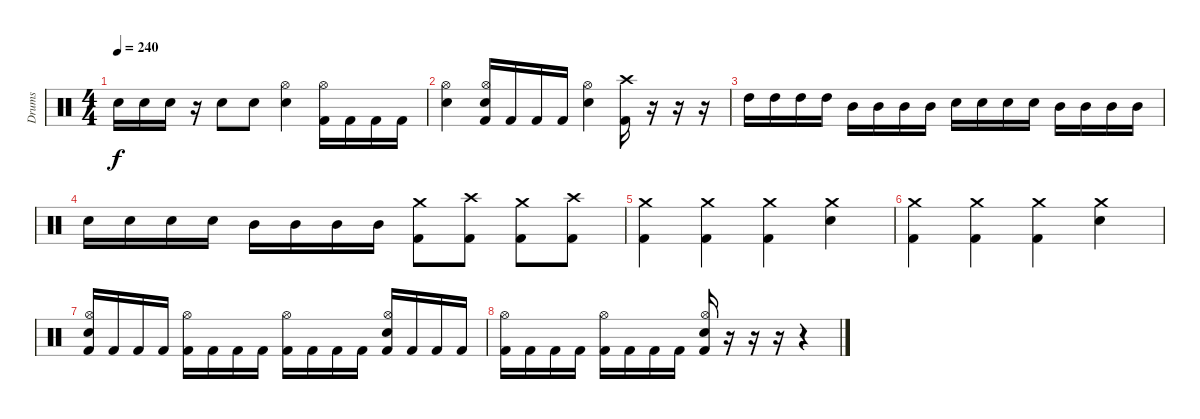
\track ("Drums" "Drums") {instrument percussion}
\staff {score}
\articulation defaults
\ts (4 4)
\tempo 240
\clef neutral
\ks c "Snare (hit) 2".16{dy f} "Snare (hit) 2".16 "Snare (hit) 2".16
r.16 "Snare (hit) 2".8 "Snare (hit) 2".8 ("Hi-Hat (open)" "Snare (hit) 2").4 ("Hi-Hat (open)" "Kick (hit) 2").16 "Kick (hit) 2".16 "Kick (hit) 2".16 "Kick (hit) 2".16 |
("Hi-Hat (open)" "Snare (hit) 2").4 ("Hi-Hat (open)" "Snare (hit) 2" "Kick (hit) 2").16 "Kick (hit) 2".16 "Kick (hit) 2".16 "Kick (hit) 2".16 ("Hi-Hat (open)" "Snare (hit) 2").4 ("Crash high (hit)" "Kick (hit) 2").16 r.16 r.16 r.16 |
"High Tom (hit)".16 "High Tom (hit)".16 "High Tom (hit)".16 "High Tom (hit)".16 "Mid Tom (hit)".16 "Mid Tom (hit)".16 "Mid Tom (hit)".16 "Mid Tom (hit)".16 "Snare (hit) 2".16 "Snare (hit) 2".16 "Snare (hit) 2".16 "Snare (hit) 2".16 "Mid Tom (hit)".16 "Mid Tom (hit)".16 "Mid Tom (hit)".16 "Mid Tom (hit)".16 |
"Snare (hit) 2".16 "Snare (hit) 2".16 "Snare (hit) 2".16 "Snare (hit) 2".16 "Mid Tom (hit)".16 "Mid Tom (hit)".16 "Mid Tom (hit)".16 "Mid Tom (hit)".16 ("Crash medium (hit)" "Kick (hit) 2").8 ("Crash high (hit)" "Kick (hit) 2").8 ("Crash medium (hit)" "Kick (hit) 2").8 ("Crash high (hit)" "Kick (hit) 2").8 |
("Crash medium (hit)" "Kick (hit) 2").4 ("Crash medium (hit)" "Kick (hit) 2").4 ("Crash medium (hit)" "Kick (hit) 2").4 ("Crash medium (hit)" "Snare (hit) 2").4 |
("Crash medium (hit)" "Kick (hit) 2").4 ("Crash medium (hit)" "Kick (hit) 2").4 ("Crash medium (hit)" "Kick (hit) 2").4 ("Crash medium (hit)" "Snare (hit) 2").4 |
("Hi-Hat (open)" "Snare (hit) 2" "Kick (hit) 2").16 "Kick (hit) 2".16 "Kick (hit) 2".16 "Kick (hit) 2".16 ("Hi-Hat (open)" "Kick (hit) 2").16 "Kick (hit) 2".16 "Kick (hit) 2".16 "Kick (hit) 2".16 ("Hi-Hat (open)" "Kick (hit) 2").16 "Kick (hit) 2".16 "Kick (hit) 2".16 "Kick (hit) 2".16 ("Hi-Hat (open)" "Snare (hit) 2" "Kick (hit) 2").16 "Kick (hit) 2".16 "Kick (hit) 2".16 "Kick (hit) 2".16 |
("Hi-Hat (open)" "Kick (hit) 2").16 "Kick (hit) 2".16 "Kick (hit) 2".16 "Kick (hit) 2".16 ("Hi-Hat (open)" "Kick (hit) 2").16 "Kick (hit) 2".16 "Kick (hit) 2".16 "Kick (hit) 2".16 ("Hi-Hat (open)" "Snare (hit) 2" "Kick (hit) 2").16 r.16 r.16 r.16 r.4
